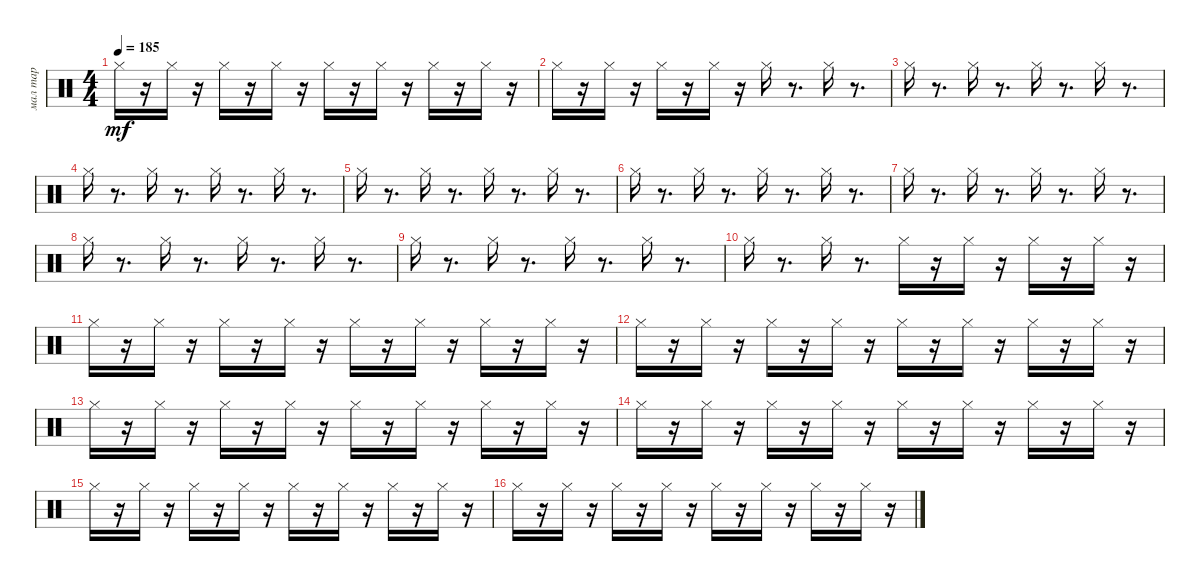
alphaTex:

\track ("мал тар" "мал тар") {instrument percussion}
\staff {score}
\articulation defaults
\ts (4 4)
\tempo 185
\clef neutral
\ks c "Hi-Hat (closed)".16{dy mf}
r.16 "Hi-Hat (closed)".16 r.16 "Hi-Hat (closed)".16 r.16 "Hi-Hat (closed)".16 r.16 "Hi-Hat (closed)".16 r.16 "Hi-Hat (closed)".16 r.16 "Hi-Hat (closed)".16 r.16 "Hi-Hat (closed)".16 r.16 |
"Hi-Hat (closed)".16 r.16 "Hi-Hat (closed)".16 r.16 "Hi-Hat (closed)".16 r.16 "Hi-Hat (closed)".16 r.16 "Hi-Hat (closed)".16 r.8{d} "Hi-Hat (closed)".16 r.8{d} |
"Hi-Hat (closed)".16 r.8{d} "Hi-Hat (closed)".16 r.8{d} "Hi-Hat (closed)".16 r.8{d} "Hi-Hat (closed)".16 r.8{d} |
"Hi-Hat (closed)".16 r.8{d} "Hi-Hat (closed)".16 r.8{d} "Hi-Hat (closed)".16 r.8{d} "Hi-Hat (closed)".16 r.8{d} |
"Hi-Hat (closed)".16 r.8{d} "Hi-Hat (closed)".16 r.8{d} "Hi-Hat (closed)".16 r.8{d} "Hi-Hat (closed)".16 r.8{d} |
"Hi-Hat (closed)".16 r.8{d} "Hi-Hat (closed)".16 r.8{d} "Hi-Hat (closed)".16 r.8{d} "Hi-Hat (closed)".16 r.8{d} |
"Hi-Hat (closed)".16 r.8{d} "Hi-Hat (closed)".16 r.8{d} "Hi-Hat (closed)".16 r.8{d} "Hi-Hat (closed)".16 r.8{d} |
"Hi-Hat (closed)".16 r.8{d} "Hi-Hat (closed)".16 r.8{d} "Hi-Hat (closed)".16 r.8{d} "Hi-Hat (closed)".16 r.8{d} |
"Hi-Hat (closed)".16 r.8{d} "Hi-Hat (closed)".16 r.8{d} "Hi-Hat (closed)".16 r.8{d} "Hi-Hat (closed)".16 r.8{d} |
"Hi-Hat (closed)".16 r.8{d} "Hi-Hat (closed)".16 r.8{d} "Hi-Hat (closed)".16 r.16 "Hi-Hat (closed)".16 r.16 "Hi-Hat (closed)".16 r.16 "Hi-Hat (closed)".16 r.16 |
"Hi-Hat (closed)".16 r.16 "Hi-Hat (closed)".16 r.16 "Hi-Hat (closed)".16 r.16 "Hi-Hat (closed)".16 r.16 "Hi-Hat (closed)".16 r.16 "Hi-Hat (closed)".16 r.16 "Hi-Hat (closed)".16 r.16 "Hi-Hat (closed)".16 r.16 |
"Hi-Hat (closed)".16 r.16 "Hi-Hat (closed)".16 r.16 "Hi-Hat (closed)".16 r.16 "Hi-Hat (closed)".16 r.16 "Hi-Hat (closed)".16 r.16 "Hi-Hat (closed)".16 r.16 "Hi-Hat (closed)".16 r.16 "Hi-Hat (closed)".16 r.16 |
"Hi-Hat (closed)".16 r.16 "Hi-Hat (closed)".16 r.16 "Hi-Hat (closed)".16 r.16 "Hi-Hat (closed)".16 r.16 "Hi-Hat (closed)".16 r.16 "Hi-Hat (closed)".16 r.16 "Hi-Hat (closed)".16 r.16 "Hi-Hat (closed)".16 r.16 |
"Hi-Hat (closed)".16 r.16 "Hi-Hat (closed)".16 r.16 "Hi-Hat (closed)".16 r.16 "Hi-Hat (closed)".16 r.16 "Hi-Hat (closed)".16 r.16 "Hi-Hat (closed)".16 r.16 "Hi-Hat (closed)".16 r.16 "Hi-Hat (closed)".16 r.16 |
"Hi-Hat (closed)".16 r.16 "Hi-Hat (closed)".16 r.16 "Hi-Hat (closed)".16 r.16 "Hi-Hat (closed)".16 r.16 "Hi-Hat (closed)".16 r.16 "Hi-Hat (closed)".16 r.16 "Hi-Hat (closed)".16 r.16 "Hi-Hat (closed)".16 r.16 |
"Hi-Hat (closed)".16 r.16 "Hi-Hat (closed)".16 r.16 "Hi-Hat (closed)".16 r.16 "Hi-Hat (closed)".16 r.16 "Hi-Hat (closed)".16 r.16 "Hi-Hat (closed)".16 r.16 "Hi-Hat (closed)".16 r.16 "Hi-Hat (closed)".16 r.16
